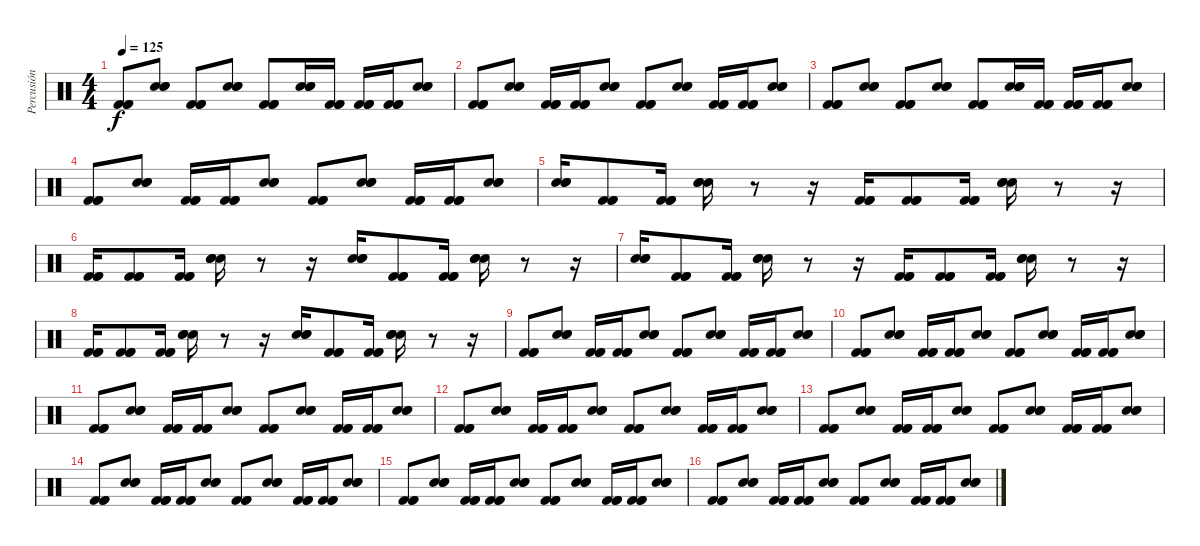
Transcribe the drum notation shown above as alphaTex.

\track ("Percusión" "Percusión") {instrument percussion}
\staff {score}
\articulation defaults
\ts (4 4)
\tempo 125
\clef neutral
\ks c
("Kick (hit) 2" "Kick (hit) 2" "Kick (hit) 2").8{dy f} ("Electric Snare (hit)" "Electric Snare (hit)" "Electric Snare (hit)").8 ("Kick (hit) 2" "Kick (hit) 2" "Kick (hit) 2").8 ("Electric Snare (hit)" "Electric Snare (hit)" "Electric Snare (hit)").8 ("Kick (hit) 2" "Kick (hit) 2" "Kick (hit) 2").8 ("Electric Snare (hit)" "Electric Snare (hit)" "Electric Snare (hit)").16 ("Kick (hit) 2" "Kick (hit) 2" "Kick (hit) 2").16 ("Kick (hit) 2" "Kick (hit) 2" "Kick (hit) 2").16 ("Kick (hit) 2" "Kick (hit) 2" "Kick (hit) 2").16 ("Electric Snare (hit)" "Electric Snare (hit)" "Electric Snare (hit)").8 |
("Kick (hit) 2" "Kick (hit) 2" "Kick (hit) 2").8 ("Electric Snare (hit)" "Electric Snare (hit)" "Electric Snare (hit)").8 ("Kick (hit) 2" "Kick (hit) 2" "Kick (hit) 2").16 ("Kick (hit) 2" "Kick (hit) 2" "Kick (hit) 2").16 ("Electric Snare (hit)" "Electric Snare (hit)" "Electric Snare (hit)").8 ("Kick (hit) 2" "Kick (hit) 2" "Kick (hit) 2").8 ("Electric Snare (hit)" "Electric Snare (hit)" "Electric Snare (hit)").8 ("Kick (hit) 2" "Kick (hit) 2" "Kick (hit) 2").16 ("Kick (hit) 2" "Kick (hit) 2" "Kick (hit) 2").16 ("Electric Snare (hit)" "Electric Snare (hit)" "Electric Snare (hit)").8 |
("Kick (hit) 2" "Kick (hit) 2" "Kick (hit) 2").8 ("Electric Snare (hit)" "Electric Snare (hit)" "Electric Snare (hit)").8 ("Kick (hit) 2" "Kick (hit) 2" "Kick (hit) 2").8 ("Electric Snare (hit)" "Electric Snare (hit)" "Electric Snare (hit)").8 ("Kick (hit) 2" "Kick (hit) 2" "Kick (hit) 2").8 ("Electric Snare (hit)" "Electric Snare (hit)" "Electric Snare (hit)").16 ("Kick (hit) 2" "Kick (hit) 2" "Kick (hit) 2").16 ("Kick (hit) 2" "Kick (hit) 2" "Kick (hit) 2").16 ("Kick (hit) 2" "Kick (hit) 2" "Kick (hit) 2").16 ("Electric Snare (hit)" "Electric Snare (hit)" "Electric Snare (hit)").8 |
("Kick (hit) 2" "Kick (hit) 2" "Kick (hit) 2").8 ("Electric Snare (hit)" "Electric Snare (hit)" "Electric Snare (hit)").8 ("Kick (hit) 2" "Kick (hit) 2" "Kick (hit) 2").16 ("Kick (hit) 2" "Kick (hit) 2" "Kick (hit) 2").16 ("Electric Snare (hit)" "Electric Snare (hit)" "Electric Snare (hit)").8 ("Kick (hit) 2" "Kick (hit) 2" "Kick (hit) 2").8 ("Electric Snare (hit)" "Electric Snare (hit)" "Electric Snare (hit)").8 ("Kick (hit) 2" "Kick (hit) 2" "Kick (hit) 2").16 ("Kick (hit) 2" "Kick (hit) 2" "Kick (hit) 2").16 ("Electric Snare (hit)" "Electric Snare (hit)" "Electric Snare (hit)").8 |
("Electric Snare (hit)" "Electric Snare (hit)" "Electric Snare (hit)").16 ("Kick (hit) 2" "Kick (hit) 2" "Kick (hit) 2").8 ("Kick (hit) 2" "Kick (hit) 2" "Kick (hit) 2").16 ("Electric Snare (hit)" "Electric Snare (hit)" "Electric Snare (hit)").16 r.8 r.16 ("Kick (hit) 2" "Kick (hit) 2" "Kick (hit) 2").16 ("Kick (hit) 2" "Kick (hit) 2" "Kick (hit) 2").8 ("Kick (hit) 2" "Kick (hit) 2" "Kick (hit) 2").16 ("Electric Snare (hit)" "Electric Snare (hit)" "Electric Snare (hit)").16 r.8 r.16 |
("Kick (hit) 2" "Kick (hit) 2" "Kick (hit) 2").16 ("Kick (hit) 2" "Kick (hit) 2" "Kick (hit) 2").8 ("Kick (hit) 2" "Kick (hit) 2" "Kick (hit) 2").16 ("Electric Snare (hit)" "Electric Snare (hit)" "Electric Snare (hit)").16 r.8 r.16 ("Electric Snare (hit)" "Electric Snare (hit)" "Electric Snare (hit)").16 ("Kick (hit) 2" "Kick (hit) 2" "Kick (hit) 2").8 ("Kick (hit) 2" "Kick (hit) 2" "Kick (hit) 2").16 ("Electric Snare (hit)" "Electric Snare (hit)" "Electric Snare (hit)").16 r.8 r.16 |
("Electric Snare (hit)" "Electric Snare (hit)" "Electric Snare (hit)").16 ("Kick (hit) 2" "Kick (hit) 2" "Kick (hit) 2").8 ("Kick (hit) 2" "Kick (hit) 2" "Kick (hit) 2").16 ("Electric Snare (hit)" "Electric Snare (hit)" "Electric Snare (hit)").16 r.8 r.16 ("Kick (hit) 2" "Kick (hit) 2" "Kick (hit) 2").16 ("Kick (hit) 2" "Kick (hit) 2" "Kick (hit) 2").8 ("Kick (hit) 2" "Kick (hit) 2" "Kick (hit) 2").16 ("Electric Snare (hit)" "Electric Snare (hit)" "Electric Snare (hit)").16 r.8 r.16 |
("Kick (hit) 2" "Kick (hit) 2" "Kick (hit) 2").16 ("Kick (hit) 2" "Kick (hit) 2" "Kick (hit) 2").8 ("Kick (hit) 2" "Kick (hit) 2" "Kick (hit) 2").16 ("Electric Snare (hit)" "Electric Snare (hit)" "Electric Snare (hit)").16 r.8 r.16 ("Electric Snare (hit)" "Electric Snare (hit)" "Electric Snare (hit)").16 ("Kick (hit) 2" "Kick (hit) 2" "Kick (hit) 2").8 ("Kick (hit) 2" "Kick (hit) 2" "Kick (hit) 2").16 ("Electric Snare (hit)" "Electric Snare (hit)" "Electric Snare (hit)").16 r.8 r.16 |
("Kick (hit) 2" "Kick (hit) 2" "Kick (hit) 2").8 ("Electric Snare (hit)" "Electric Snare (hit)" "Electric Snare (hit)").8 ("Kick (hit) 2" "Kick (hit) 2" "Kick (hit) 2").16 ("Kick (hit) 2" "Kick (hit) 2" "Kick (hit) 2").16 ("Electric Snare (hit)" "Electric Snare (hit)" "Electric Snare (hit)").8 ("Kick (hit) 2" "Kick (hit) 2" "Kick (hit) 2").8 ("Electric Snare (hit)" "Electric Snare (hit)" "Electric Snare (hit)").8 ("Kick (hit) 2" "Kick (hit) 2" "Kick (hit) 2").16 ("Kick (hit) 2" "Kick (hit) 2" "Kick (hit) 2").16 ("Electric Snare (hit)" "Electric Snare (hit)" "Electric Snare (hit)").8 |
("Kick (hit) 2" "Kick (hit) 2" "Kick (hit) 2").8 ("Electric Snare (hit)" "Electric Snare (hit)" "Electric Snare (hit)").8 ("Kick (hit) 2" "Kick (hit) 2" "Kick (hit) 2").16 ("Kick (hit) 2" "Kick (hit) 2" "Kick (hit) 2").16 ("Electric Snare (hit)" "Electric Snare (hit)" "Electric Snare (hit)").8 ("Kick (hit) 2" "Kick (hit) 2" "Kick (hit) 2").8 ("Electric Snare (hit)" "Electric Snare (hit)" "Electric Snare (hit)").8 ("Kick (hit) 2" "Kick (hit) 2" "Kick (hit) 2").16 ("Kick (hit) 2" "Kick (hit) 2" "Kick (hit) 2").16 ("Electric Snare (hit)" "Electric Snare (hit)" "Electric Snare (hit)").8 |
("Kick (hit) 2" "Kick (hit) 2" "Kick (hit) 2").8 ("Electric Snare (hit)" "Electric Snare (hit)" "Electric Snare (hit)").8 ("Kick (hit) 2" "Kick (hit) 2" "Kick (hit) 2").16 ("Kick (hit) 2" "Kick (hit) 2" "Kick (hit) 2").16 ("Electric Snare (hit)" "Electric Snare (hit)" "Electric Snare (hit)").8 ("Kick (hit) 2" "Kick (hit) 2" "Kick (hit) 2").8 ("Electric Snare (hit)" "Electric Snare (hit)" "Electric Snare (hit)").8 ("Kick (hit) 2" "Kick (hit) 2" "Kick (hit) 2").16 ("Kick (hit) 2" "Kick (hit) 2" "Kick (hit) 2").16 ("Electric Snare (hit)" "Electric Snare (hit)" "Electric Snare (hit)").8 |
("Kick (hit) 2" "Kick (hit) 2" "Kick (hit) 2").8 ("Electric Snare (hit)" "Electric Snare (hit)" "Electric Snare (hit)").8 ("Kick (hit) 2" "Kick (hit) 2" "Kick (hit) 2").16 ("Kick (hit) 2" "Kick (hit) 2" "Kick (hit) 2").16 ("Electric Snare (hit)" "Electric Snare (hit)" "Electric Snare (hit)").8 ("Kick (hit) 2" "Kick (hit) 2" "Kick (hit) 2").8 ("Electric Snare (hit)" "Electric Snare (hit)" "Electric Snare (hit)").8 ("Kick (hit) 2" "Kick (hit) 2" "Kick (hit) 2").16 ("Kick (hit) 2" "Kick (hit) 2" "Kick (hit) 2").16 ("Electric Snare (hit)" "Electric Snare (hit)" "Electric Snare (hit)").8 |
("Kick (hit) 2" "Kick (hit) 2" "Kick (hit) 2").8 ("Electric Snare (hit)" "Electric Snare (hit)" "Electric Snare (hit)").8 ("Kick (hit) 2" "Kick (hit) 2" "Kick (hit) 2").16 ("Kick (hit) 2" "Kick (hit) 2" "Kick (hit) 2").16 ("Electric Snare (hit)" "Electric Snare (hit)" "Electric Snare (hit)").8 ("Kick (hit) 2" "Kick (hit) 2" "Kick (hit) 2").8 ("Electric Snare (hit)" "Electric Snare (hit)" "Electric Snare (hit)").8 ("Kick (hit) 2" "Kick (hit) 2" "Kick (hit) 2").16 ("Kick (hit) 2" "Kick (hit) 2" "Kick (hit) 2").16 ("Electric Snare (hit)" "Electric Snare (hit)" "Electric Snare (hit)").8 |
("Kick (hit) 2" "Kick (hit) 2" "Kick (hit) 2").8 ("Electric Snare (hit)" "Electric Snare (hit)" "Electric Snare (hit)").8 ("Kick (hit) 2" "Kick (hit) 2" "Kick (hit) 2").16 ("Kick (hit) 2" "Kick (hit) 2" "Kick (hit) 2").16 ("Electric Snare (hit)" "Electric Snare (hit)" "Electric Snare (hit)").8 ("Kick (hit) 2" "Kick (hit) 2" "Kick (hit) 2").8 ("Electric Snare (hit)" "Electric Snare (hit)" "Electric Snare (hit)").8 ("Kick (hit) 2" "Kick (hit) 2" "Kick (hit) 2").16 ("Kick (hit) 2" "Kick (hit) 2" "Kick (hit) 2").16 ("Electric Snare (hit)" "Electric Snare (hit)" "Electric Snare (hit)").8 |
("Kick (hit) 2" "Kick (hit) 2" "Kick (hit) 2").8 ("Electric Snare (hit)" "Electric Snare (hit)" "Electric Snare (hit)").8 ("Kick (hit) 2" "Kick (hit) 2" "Kick (hit) 2").16 ("Kick (hit) 2" "Kick (hit) 2" "Kick (hit) 2").16 ("Electric Snare (hit)" "Electric Snare (hit)" "Electric Snare (hit)").8 ("Kick (hit) 2" "Kick (hit) 2" "Kick (hit) 2").8 ("Electric Snare (hit)" "Electric Snare (hit)" "Electric Snare (hit)").8 ("Kick (hit) 2" "Kick (hit) 2" "Kick (hit) 2").16 ("Kick (hit) 2" "Kick (hit) 2" "Kick (hit) 2").16 ("Electric Snare (hit)" "Electric Snare (hit)" "Electric Snare (hit)").8 |
("Kick (hit) 2" "Kick (hit) 2" "Kick (hit) 2").8 ("Electric Snare (hit)" "Electric Snare (hit)" "Electric Snare (hit)").8 ("Kick (hit) 2" "Kick (hit) 2" "Kick (hit) 2").16 ("Kick (hit) 2" "Kick (hit) 2" "Kick (hit) 2").16 ("Electric Snare (hit)" "Electric Snare (hit)" "Electric Snare (hit)").8 ("Kick (hit) 2" "Kick (hit) 2" "Kick (hit) 2").8 ("Electric Snare (hit)" "Electric Snare (hit)" "Electric Snare (hit)").8 ("Kick (hit) 2" "Kick (hit) 2" "Kick (hit) 2").16 ("Kick (hit) 2" "Kick (hit) 2" "Kick (hit) 2").16 ("Electric Snare (hit)" "Electric Snare (hit)" "Electric Snare (hit)").8
